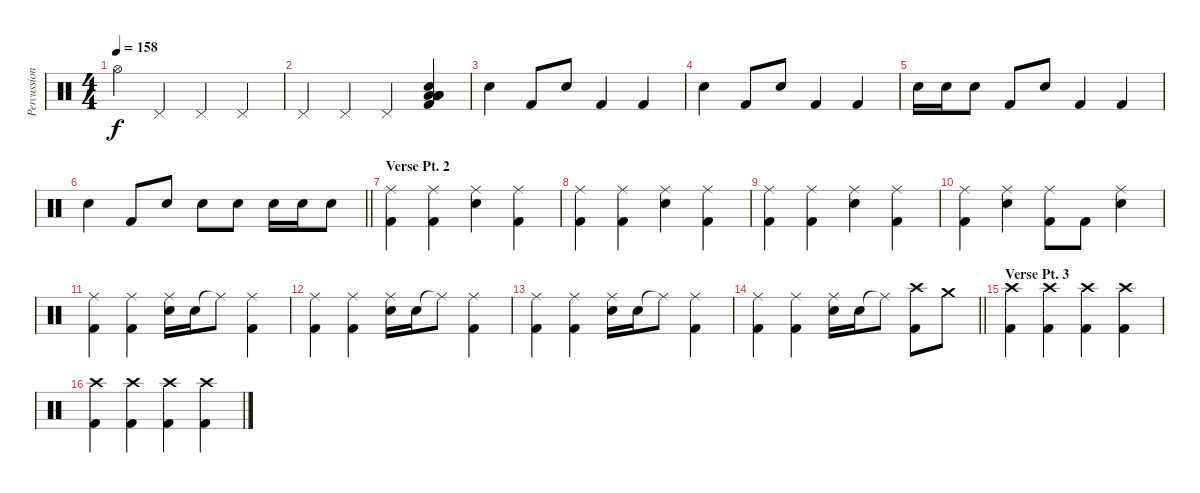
\track ("Percussion" "Percussion") {instrument percussion}
\staff {score}
\articulation defaults
\ts (4 4)
\tempo 158
\clef neutral
\ks c "Hi-Hat (open)".4{dy f} "Pedal Hi-Hat (hit)".4 "Pedal Hi-Hat (hit)".4 "Pedal Hi-Hat (hit)".4
|
"Pedal Hi-Hat (hit)".4 "Pedal Hi-Hat (hit)".4 "Pedal Hi-Hat (hit)".4 ("Low Floor Tom (hit)" "Low Floor Tom (hit)" "Low Floor Tom (hit)" "Electric Snare (hit)" "Low Floor Tom (hit)" "Kick (hit) 2").4 |
"Electric Snare (hit)".4 "Kick (hit) 2".8 "Electric Snare (hit)".8 "Kick (hit) 2".4 "Kick (hit) 2".4 |
"Electric Snare (hit)".4 "Kick (hit) 2".8 "Electric Snare (hit)".8 "Kick (hit) 2".4 "Kick (hit) 2".4 |
"Electric Snare (hit)".16 "Electric Snare (hit)".16 "Electric Snare (hit)".8 "Kick (hit) 2".8 "Electric Snare (hit)".8 "Kick (hit) 2".4 "Kick (hit) 2".4 |
\barLineRight lightlight "Electric Snare (hit)".4 "Kick (hit) 2".8 "Electric Snare (hit)".8 "Electric Snare (hit)".8 "Electric Snare (hit)".8 "Electric Snare (hit)".16 "Electric Snare (hit)".16 "Electric Snare (hit)".8
|
\section ("" "Verse Pt. 2")
("Ride (middle)" "Kick (hit) 2").4 ("Ride (middle)" "Kick (hit) 2").4 ("Ride (middle)" "Electric Snare (hit)").4 ("Ride (middle)" "Kick (hit) 2").4 |
("Ride (middle)" "Kick (hit) 2").4 ("Ride (middle)" "Kick (hit) 2").4 ("Ride (middle)" "Electric Snare (hit)").4 ("Ride (middle)" "Kick (hit) 2").4 |
("Ride (middle)" "Kick (hit) 2").4 ("Ride (middle)" "Kick (hit) 2").4 ("Ride (middle)" "Electric Snare (hit)").4 ("Ride (middle)" "Kick (hit) 2").4 |
("Ride (middle)" "Kick (hit) 2").4 ("Ride (middle)" "Electric Snare (hit)").4 ("Ride (middle)" "Kick (hit) 2").8 "Kick (hit) 2".8 ("Ride (middle)" "Electric Snare (hit)").4 |
("Ride (middle)" "Kick (hit) 2").4 ("Ride (middle)" "Kick (hit) 2").4 ("Ride (middle)" "Electric Snare (hit)").16 "Electric Snare (hit)".16 "Ride (middle)"{t}.8 ("Ride (middle)" "Kick (hit) 2").4 |
("Ride (middle)" "Kick (hit) 2").4 ("Ride (middle)" "Kick (hit) 2").4 ("Ride (middle)" "Electric Snare (hit)").16 "Electric Snare (hit)".16 "Ride (middle)"{t}.8 ("Ride (middle)" "Kick (hit) 2").4 |
("Ride (middle)" "Kick (hit) 2").4 ("Ride (middle)" "Kick (hit) 2").4 ("Ride (middle)" "Electric Snare (hit)").16 "Electric Snare (hit)".16 "Ride (middle)"{t}.8 ("Ride (middle)" "Kick (hit) 2").4 |
\barLineRight lightlight
("Ride (middle)" "Kick (hit) 2").4{volume 3} ("Ride (middle)" "Kick (hit) 2").4 ("Ride (middle)" "Electric Snare (hit)").16 "Electric Snare (hit)".16 "Ride (middle)"{t}.8 ("Crash high (hit)" "Kick (hit) 2").8 "Crash medium (hit)".8 |
\section ("" "Verse Pt. 3")
("Crash high (hit)" "Kick (hit) 2").4{volume 4} ("Crash high (hit)" "Kick (hit) 2").4 ("Crash high (hit)" "Kick (hit) 2").4 ("Crash high (hit)" "Kick (hit) 2").4 |
("Crash high (hit)" "Kick (hit) 2").4 ("Crash high (hit)" "Kick (hit) 2").4 ("Crash high (hit)" "Kick (hit) 2").4 ("Crash high (hit)" "Kick (hit) 2").4
